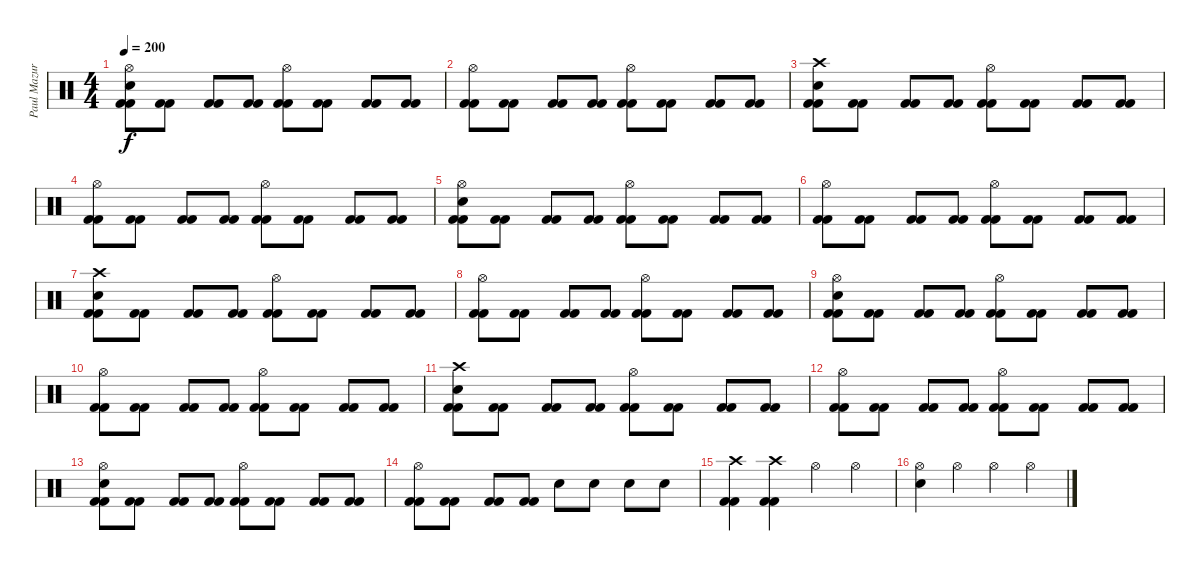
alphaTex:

\track ("Paul Mazurkiewicz" "Paul Mazur") {instrument percussion}
\staff {score}
\articulation defaults
\ts (4 4)
\tempo 200
\clef neutral
\ks c
("Hi-Hat (open)" "Electric Snare (hit)" "Kick (hit) 2" "Kick (hit) 2").8{dy f} ("Kick (hit) 2" "Kick (hit) 2").8 ("Kick (hit) 2" "Kick (hit) 2").8 ("Kick (hit) 2" "Kick (hit) 2").8 ("Hi-Hat (open)" "Kick (hit) 2" "Kick (hit) 2").8 ("Kick (hit) 2" "Kick (hit) 2").8 ("Kick (hit) 2" "Kick (hit) 2").8 ("Kick (hit) 2" "Kick (hit) 2").8 |
("Hi-Hat (open)" "Kick (hit) 2" "Kick (hit) 2").8 ("Kick (hit) 2" "Kick (hit) 2").8 ("Kick (hit) 2" "Kick (hit) 2").8 ("Kick (hit) 2" "Kick (hit) 2").8 ("Hi-Hat (open)" "Kick (hit) 2" "Kick (hit) 2").8 ("Kick (hit) 2" "Kick (hit) 2").8 ("Kick (hit) 2" "Kick (hit) 2").8 ("Kick (hit) 2" "Kick (hit) 2").8 |
("Crash high (hit)" "Electric Snare (hit)" "Kick (hit) 2" "Kick (hit) 2").8 ("Kick (hit) 2" "Kick (hit) 2").8 ("Kick (hit) 2" "Kick (hit) 2").8 ("Kick (hit) 2" "Kick (hit) 2").8 ("Hi-Hat (open)" "Kick (hit) 2" "Kick (hit) 2").8 ("Kick (hit) 2" "Kick (hit) 2").8 ("Kick (hit) 2" "Kick (hit) 2").8 ("Kick (hit) 2" "Kick (hit) 2").8 |
("Hi-Hat (open)" "Kick (hit) 2" "Kick (hit) 2").8 ("Kick (hit) 2" "Kick (hit) 2").8 ("Kick (hit) 2" "Kick (hit) 2").8 ("Kick (hit) 2" "Kick (hit) 2").8 ("Hi-Hat (open)" "Kick (hit) 2" "Kick (hit) 2").8 ("Kick (hit) 2" "Kick (hit) 2").8 ("Kick (hit) 2" "Kick (hit) 2").8 ("Kick (hit) 2" "Kick (hit) 2").8 |
("Hi-Hat (open)" "Electric Snare (hit)" "Kick (hit) 2" "Kick (hit) 2").8 ("Kick (hit) 2" "Kick (hit) 2").8 ("Kick (hit) 2" "Kick (hit) 2").8 ("Kick (hit) 2" "Kick (hit) 2").8 ("Hi-Hat (open)" "Kick (hit) 2" "Kick (hit) 2").8 ("Kick (hit) 2" "Kick (hit) 2").8 ("Kick (hit) 2" "Kick (hit) 2").8 ("Kick (hit) 2" "Kick (hit) 2").8 |
("Hi-Hat (open)" "Kick (hit) 2" "Kick (hit) 2").8 ("Kick (hit) 2" "Kick (hit) 2").8 ("Kick (hit) 2" "Kick (hit) 2").8 ("Kick (hit) 2" "Kick (hit) 2").8 ("Hi-Hat (open)" "Kick (hit) 2" "Kick (hit) 2").8 ("Kick (hit) 2" "Kick (hit) 2").8 ("Kick (hit) 2" "Kick (hit) 2").8 ("Kick (hit) 2" "Kick (hit) 2").8 |
("Crash high (hit)" "Electric Snare (hit)" "Kick (hit) 2" "Kick (hit) 2").8 ("Kick (hit) 2" "Kick (hit) 2").8 ("Kick (hit) 2" "Kick (hit) 2").8 ("Kick (hit) 2" "Kick (hit) 2").8 ("Hi-Hat (open)" "Kick (hit) 2" "Kick (hit) 2").8 ("Kick (hit) 2" "Kick (hit) 2").8 ("Kick (hit) 2" "Kick (hit) 2").8 ("Kick (hit) 2" "Kick (hit) 2").8 |
("Hi-Hat (open)" "Kick (hit) 2" "Kick (hit) 2").8 ("Kick (hit) 2" "Kick (hit) 2").8 ("Kick (hit) 2" "Kick (hit) 2").8 ("Kick (hit) 2" "Kick (hit) 2").8 ("Hi-Hat (open)" "Kick (hit) 2" "Kick (hit) 2").8 ("Kick (hit) 2" "Kick (hit) 2").8 ("Kick (hit) 2" "Kick (hit) 2").8 ("Kick (hit) 2" "Kick (hit) 2").8 |
("Hi-Hat (open)" "Electric Snare (hit)" "Kick (hit) 2" "Kick (hit) 2").8 ("Kick (hit) 2" "Kick (hit) 2").8 ("Kick (hit) 2" "Kick (hit) 2").8 ("Kick (hit) 2" "Kick (hit) 2").8 ("Hi-Hat (open)" "Kick (hit) 2" "Kick (hit) 2").8 ("Kick (hit) 2" "Kick (hit) 2").8 ("Kick (hit) 2" "Kick (hit) 2").8 ("Kick (hit) 2" "Kick (hit) 2").8 |
("Hi-Hat (open)" "Kick (hit) 2" "Kick (hit) 2").8 ("Kick (hit) 2" "Kick (hit) 2").8 ("Kick (hit) 2" "Kick (hit) 2").8 ("Kick (hit) 2" "Kick (hit) 2").8 ("Hi-Hat (open)" "Kick (hit) 2" "Kick (hit) 2").8 ("Kick (hit) 2" "Kick (hit) 2").8 ("Kick (hit) 2" "Kick (hit) 2").8 ("Kick (hit) 2" "Kick (hit) 2").8 |
("Crash high (hit)" "Electric Snare (hit)" "Kick (hit) 2" "Kick (hit) 2").8 ("Kick (hit) 2" "Kick (hit) 2").8 ("Kick (hit) 2" "Kick (hit) 2").8 ("Kick (hit) 2" "Kick (hit) 2").8 ("Hi-Hat (open)" "Kick (hit) 2" "Kick (hit) 2").8 ("Kick (hit) 2" "Kick (hit) 2").8 ("Kick (hit) 2" "Kick (hit) 2").8 ("Kick (hit) 2" "Kick (hit) 2").8 |
("Hi-Hat (open)" "Kick (hit) 2" "Kick (hit) 2").8 ("Kick (hit) 2" "Kick (hit) 2").8 ("Kick (hit) 2" "Kick (hit) 2").8 ("Kick (hit) 2" "Kick (hit) 2").8 ("Hi-Hat (open)" "Kick (hit) 2" "Kick (hit) 2").8 ("Kick (hit) 2" "Kick (hit) 2").8 ("Kick (hit) 2" "Kick (hit) 2").8 ("Kick (hit) 2" "Kick (hit) 2").8 |
("Hi-Hat (open)" "Electric Snare (hit)" "Kick (hit) 2" "Kick (hit) 2").8 ("Kick (hit) 2" "Kick (hit) 2").8 ("Kick (hit) 2" "Kick (hit) 2").8 ("Kick (hit) 2" "Kick (hit) 2").8 ("Hi-Hat (open)" "Kick (hit) 2" "Kick (hit) 2").8 ("Kick (hit) 2" "Kick (hit) 2").8 ("Kick (hit) 2" "Kick (hit) 2").8 ("Kick (hit) 2" "Kick (hit) 2").8 |
("Hi-Hat (open)" "Kick (hit) 2" "Kick (hit) 2").8 ("Kick (hit) 2" "Kick (hit) 2").8 ("Kick (hit) 2" "Kick (hit) 2").8 ("Kick (hit) 2" "Kick (hit) 2").8 "Electric Snare (hit)".8 "Electric Snare (hit)".8 "Electric Snare (hit)".8 "Electric Snare (hit)".8 |
("Crash high (hit)" "Kick (hit) 2" "Kick (hit) 2").4 ("Crash high (hit)" "Kick (hit) 2" "Kick (hit) 2").4 "Hi-Hat (open)".4 "Hi-Hat (open)".4 |
("Hi-Hat (open)" "Electric Snare (hit)").4 "Hi-Hat (open)".4 "Hi-Hat (open)".4 "Hi-Hat (open)".4
